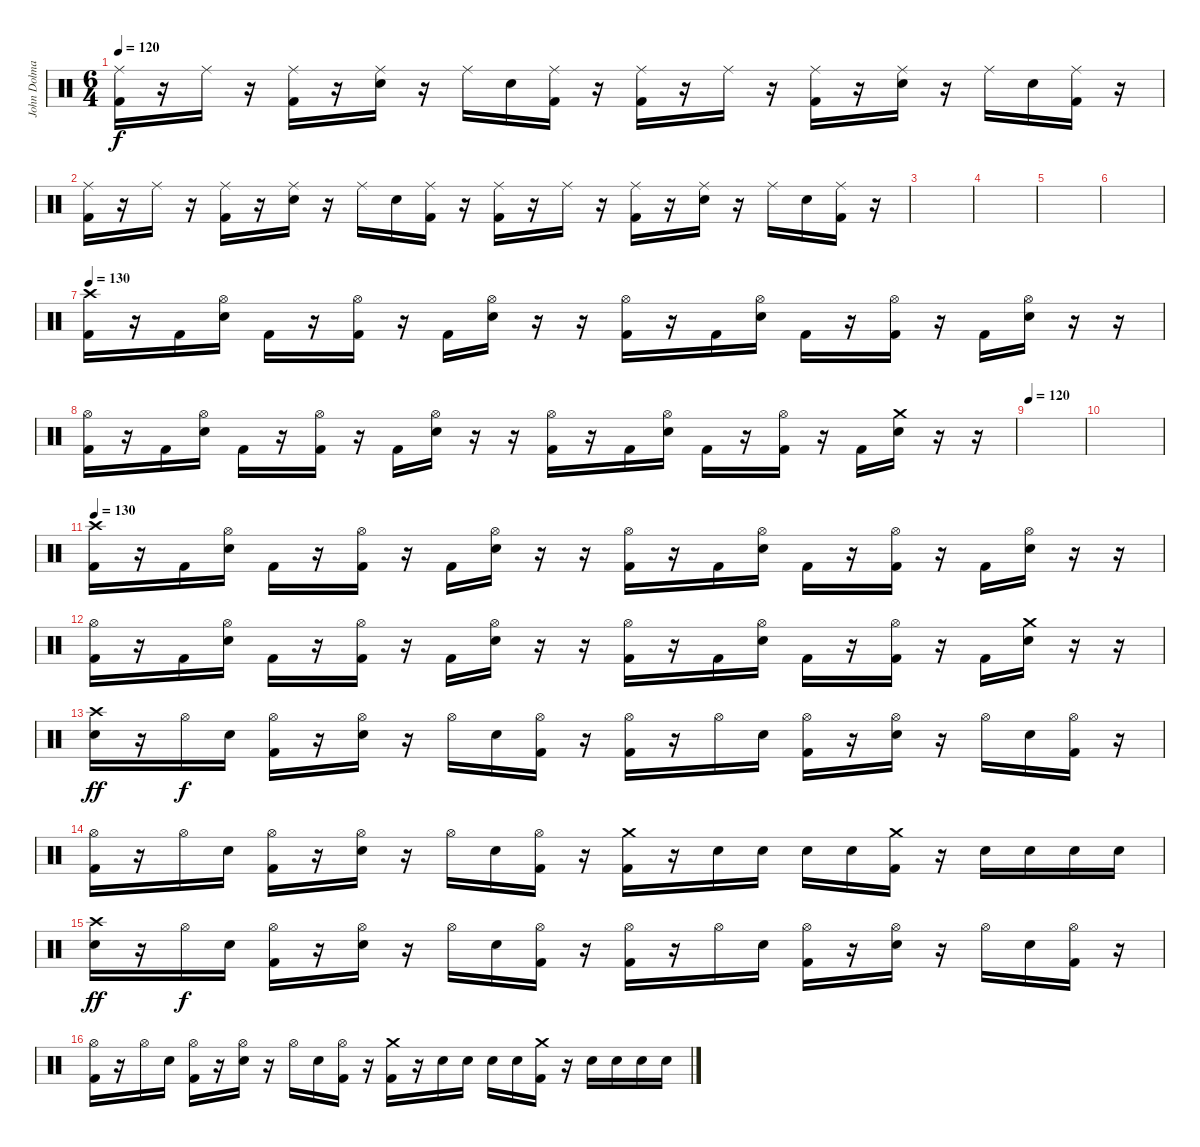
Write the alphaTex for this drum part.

\track ("John Dolmayan" "John Dolma") {instrument percussion}
\staff {score}
\articulation defaults
\ts (6 4)
\tempo 120
\clef neutral
\ks c
("Ride (middle)" "Kick (hit) 2").16{dy f} r.16 "Ride (middle)".16 r.16 ("Ride (middle)" "Kick (hit) 2").16 r.16 ("Ride (middle)" "Electric Snare (hit)").16 r.16 "Ride (middle)".16 "Electric Snare (hit)".16 ("Ride (middle)" "Kick (hit) 2").16 r.16 ("Ride (middle)" "Kick (hit) 2").16 r.16 "Ride (middle)".16 r.16 ("Ride (middle)" "Kick (hit) 2").16 r.16 ("Ride (middle)" "Electric Snare (hit)").16 r.16 "Ride (middle)".16 "Electric Snare (hit)".16 ("Ride (middle)" "Kick (hit) 2").16 r.16 |
("Ride (middle)" "Kick (hit) 2").16 r.16 "Ride (middle)".16 r.16 ("Ride (middle)" "Kick (hit) 2").16 r.16 ("Ride (middle)" "Electric Snare (hit)").16 r.16 "Ride (middle)".16 "Electric Snare (hit)".16 ("Ride (middle)" "Kick (hit) 2").16 r.16 ("Ride (middle)" "Kick (hit) 2").16 r.16 "Ride (middle)".16 r.16 ("Ride (middle)" "Kick (hit) 2").16 r.16 ("Ride (middle)" "Electric Snare (hit)").16 r.16 "Ride (middle)".16 "Electric Snare (hit)".16 ("Ride (middle)" "Kick (hit) 2").16 r.16 |
|
|
|
|
\tempo 130
("Crash high (hit)" "Kick (hit) 2").16 r.16 "Kick (hit) 2".16 ("Hi-Hat (open)" "Electric Snare (hit)").16 "Kick (hit) 2".16 r.16 ("Hi-Hat (open)" "Kick (hit) 2").16 r.16 "Kick (hit) 2".16 ("Hi-Hat (open)" "Electric Snare (hit)").16 r.16 r.16 ("Hi-Hat (open)" "Kick (hit) 2").16 r.16 "Kick (hit) 2".16 ("Hi-Hat (open)" "Electric Snare (hit)").16 "Kick (hit) 2".16 r.16 ("Hi-Hat (open)" "Kick (hit) 2").16 r.16 "Kick (hit) 2".16 ("Hi-Hat (open)" "Electric Snare (hit)").16 r.16 r.16 |
("Hi-Hat (open)" "Kick (hit) 2").16 r.16 "Kick (hit) 2".16 ("Hi-Hat (open)" "Electric Snare (hit)").16 "Kick (hit) 2".16 r.16 ("Hi-Hat (open)" "Kick (hit) 2").16 r.16 "Kick (hit) 2".16 ("Hi-Hat (open)" "Electric Snare (hit)").16 r.16 r.16 ("Hi-Hat (open)" "Kick (hit) 2").16 r.16 "Kick (hit) 2".16 ("Hi-Hat (open)" "Electric Snare (hit)").16 "Kick (hit) 2".16 r.16 ("Hi-Hat (open)" "Kick (hit) 2").16 r.16 "Kick (hit) 2".16 ("Crash medium (hit)" "Electric Snare (hit)").16 r.16 r.16 |
\tempo 120
|
|
\tempo 130
("Crash high (hit)" "Kick (hit) 2").16 r.16 "Kick (hit) 2".16 ("Hi-Hat (open)" "Electric Snare (hit)").16 "Kick (hit) 2".16 r.16 ("Hi-Hat (open)" "Kick (hit) 2").16 r.16 "Kick (hit) 2".16 ("Hi-Hat (open)" "Electric Snare (hit)").16 r.16 r.16 ("Hi-Hat (open)" "Kick (hit) 2").16 r.16 "Kick (hit) 2".16 ("Hi-Hat (open)" "Electric Snare (hit)").16 "Kick (hit) 2".16 r.16 ("Hi-Hat (open)" "Kick (hit) 2").16 r.16 "Kick (hit) 2".16 ("Hi-Hat (open)" "Electric Snare (hit)").16 r.16 r.16 |
("Hi-Hat (open)" "Kick (hit) 2").16 r.16 "Kick (hit) 2".16 ("Hi-Hat (open)" "Electric Snare (hit)").16 "Kick (hit) 2".16 r.16 ("Hi-Hat (open)" "Kick (hit) 2").16 r.16 "Kick (hit) 2".16 ("Hi-Hat (open)" "Electric Snare (hit)").16 r.16 r.16 ("Hi-Hat (open)" "Kick (hit) 2").16 r.16 "Kick (hit) 2".16 ("Hi-Hat (open)" "Electric Snare (hit)").16 "Kick (hit) 2".16 r.16 ("Hi-Hat (open)" "Kick (hit) 2").16 r.16 "Kick (hit) 2".16 ("Crash medium (hit)" "Electric Snare (hit)").16 r.16 r.16 |
("Crash high (hit)" "Electric Snare (hit)").16{dy ff} r.16 "Hi-Hat (open)".16{dy f} "Electric Snare (hit)".16 ("Hi-Hat (open)" "Kick (hit) 2").16 r.16 ("Hi-Hat (open)" "Electric Snare (hit)").16 r.16 "Hi-Hat (open)".16 "Electric Snare (hit)".16 ("Hi-Hat (open)" "Kick (hit) 2").16 r.16 ("Hi-Hat (open)" "Kick (hit) 2").16 r.16 "Hi-Hat (open)".16 "Electric Snare (hit)".16 ("Hi-Hat (open)" "Kick (hit) 2").16 r.16 ("Hi-Hat (open)" "Electric Snare (hit)").16 r.16 "Hi-Hat (open)".16 "Electric Snare (hit)".16 ("Hi-Hat (open)" "Kick (hit) 2").16 r.16 |
("Hi-Hat (open)" "Kick (hit) 2").16 r.16 "Hi-Hat (open)".16 "Electric Snare (hit)".16 ("Hi-Hat (open)" "Kick (hit) 2").16 r.16 ("Hi-Hat (open)" "Electric Snare (hit)").16 r.16 "Hi-Hat (open)".16 "Electric Snare (hit)".16 ("Hi-Hat (open)" "Kick (hit) 2").16 r.16 ("Crash medium (hit)" "Kick (hit) 2").16 r.16 "Electric Snare (hit)".16 "Electric Snare (hit)".16 "Electric Snare (hit)".16 "Electric Snare (hit)".16 ("Crash medium (hit)" "Kick (hit) 2").16 r.16 "Electric Snare (hit)".16 "Electric Snare (hit)".16 "Electric Snare (hit)".16 "Electric Snare (hit)".16 |
("Crash high (hit)" "Electric Snare (hit)").16{dy ff} r.16 "Hi-Hat (open)".16{dy f} "Electric Snare (hit)".16 ("Hi-Hat (open)" "Kick (hit) 2").16 r.16 ("Hi-Hat (open)" "Electric Snare (hit)").16 r.16 "Hi-Hat (open)".16 "Electric Snare (hit)".16 ("Hi-Hat (open)" "Kick (hit) 2").16 r.16 ("Hi-Hat (open)" "Kick (hit) 2").16 r.16 "Hi-Hat (open)".16 "Electric Snare (hit)".16 ("Hi-Hat (open)" "Kick (hit) 2").16 r.16 ("Hi-Hat (open)" "Electric Snare (hit)").16 r.16 "Hi-Hat (open)".16 "Electric Snare (hit)".16 ("Hi-Hat (open)" "Kick (hit) 2").16 r.16 |
("Hi-Hat (open)" "Kick (hit) 2").16 r.16 "Hi-Hat (open)".16 "Electric Snare (hit)".16 ("Hi-Hat (open)" "Kick (hit) 2").16 r.16 ("Hi-Hat (open)" "Electric Snare (hit)").16 r.16 "Hi-Hat (open)".16 "Electric Snare (hit)".16 ("Hi-Hat (open)" "Kick (hit) 2").16 r.16 ("Crash medium (hit)" "Kick (hit) 2").16 r.16 "Electric Snare (hit)".16 "Electric Snare (hit)".16 "Electric Snare (hit)".16 "Electric Snare (hit)".16 ("Crash medium (hit)" "Kick (hit) 2").16 r.16 "Electric Snare (hit)".16 "Electric Snare (hit)".16 "Electric Snare (hit)".16 "Electric Snare (hit)".16
